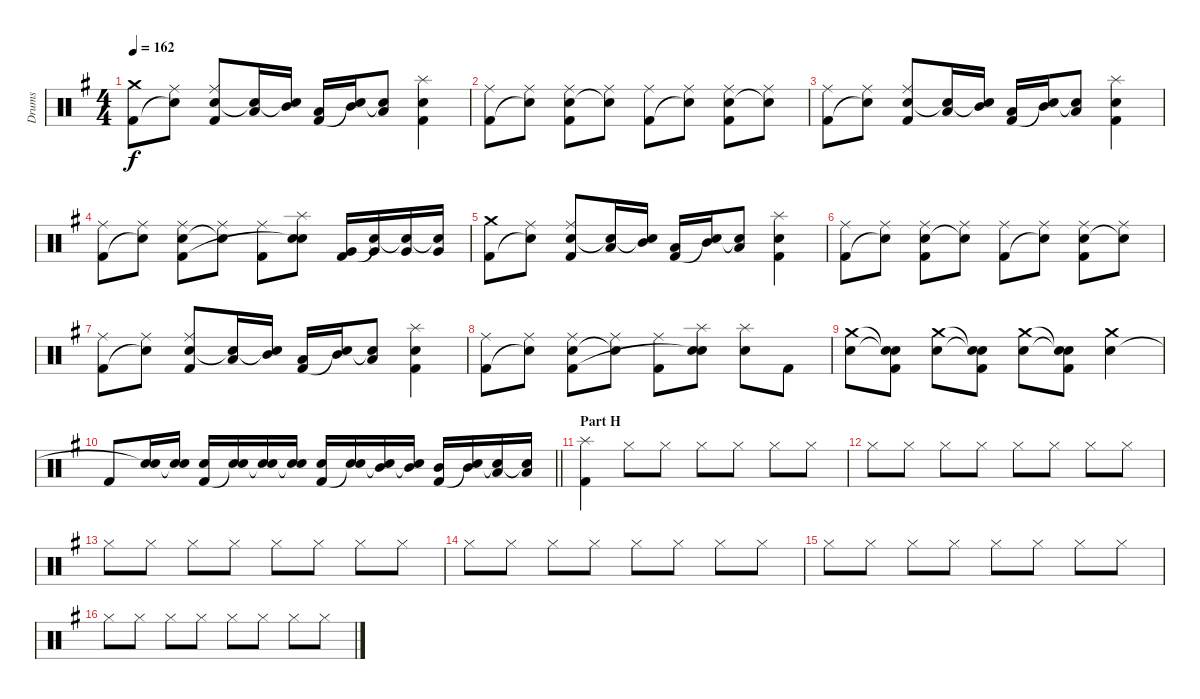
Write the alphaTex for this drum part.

\track ("Drums" "Drums") {instrument percussion}
\staff {score}
\articulation defaults
\ts (4 4)
\tempo 162
\clef neutral
\ks g
("Crash medium (hit)" "Kick (hit) 2").8{dy f} ("Ride (middle)" "Snare (hit)"{t}).8 ("Ride (middle)" "Electric Snare (hit)" "Kick (hit) 2").8 ("Low Tom (hit)" "Snare (hit)"{t}).16 ("Mid Tom (hit)" "Snare (hit)"{t}).16 ("Low Tom (hit)" "Kick (hit) 2").16 ("Mid Tom (hit)" "Snare (hit)"{t}).16 ("Low Tom (hit)" "Snare (hit)"{t}).8 ("Splash (hit)" "Electric Snare (hit)" "Kick (hit) 2").4 |
("Ride (middle)" "Kick (hit) 2").8 ("Ride (middle)" "Snare (hit)"{t}).8 ("Ride (middle)" "Electric Snare (hit)" "Kick (hit) 2").8 ("Ride (middle)" "Snare (hit)"{t}).8 ("Ride (middle)" "Kick (hit) 2").8 ("Ride (middle)" "Snare (hit)"{t}).8 ("Ride (middle)" "Electric Snare (hit)" "Kick (hit) 2").8 ("Ride (middle)" "Snare (hit)"{t}).8 |
("Ride (middle)" "Kick (hit) 2").8 ("Ride (middle)" "Snare (hit)"{t}).8 ("Ride (middle)" "Electric Snare (hit)" "Kick (hit) 2").8 ("Low Tom (hit)" "Snare (hit)"{t}).16 ("Mid Tom (hit)" "Snare (hit)"{t}).16 ("Low Tom (hit)" "Kick (hit) 2").16 ("Mid Tom (hit)" "Snare (hit)"{t}).16 ("Low Tom (hit)" "Snare (hit)"{t}).8 ("Splash (hit)" "Electric Snare (hit)" "Kick (hit) 2").4 |
("Ride (middle)" "Kick (hit) 2").8 ("Ride (middle)" "Snare (hit)"{t}).8 ("Ride (middle)" "Electric Snare (hit)" "Kick (hit) 2").8 ("Ride (middle)" "Snare (hit)"{t}).8 ("Ride (middle)" "Kick (hit) 2").8 ("Splash (hit)" "Electric Snare (hit)" "Snare (hit)"{t}).8 ("Very Low Tom (hit)" "Kick (hit) 2").16 ("Very Low Tom (hit)" "Snare (hit)"{t}).16 ("Very Low Tom (hit)" "Snare (hit)"{t}).16 ("Very Low Tom (hit)" "Snare (hit)"{t}).16 |
("Crash medium (hit)" "Kick (hit) 2").8 ("Ride (middle)" "Snare (hit)"{t}).8 ("Ride (middle)" "Electric Snare (hit)" "Kick (hit) 2").8 ("Low Tom (hit)" "Snare (hit)"{t}).16 ("Mid Tom (hit)" "Snare (hit)"{t}).16 ("Low Tom (hit)" "Kick (hit) 2").16 ("Mid Tom (hit)" "Snare (hit)"{t}).16 ("Low Tom (hit)" "Snare (hit)"{t}).8 ("Splash (hit)" "Electric Snare (hit)" "Kick (hit) 2").4 |
("Ride (middle)" "Kick (hit) 2").8 ("Ride (middle)" "Snare (hit)"{t}).8 ("Ride (middle)" "Electric Snare (hit)" "Kick (hit) 2").8 ("Ride (middle)" "Snare (hit)"{t}).8 ("Ride (middle)" "Kick (hit) 2").8 ("Ride (middle)" "Snare (hit)"{t}).8 ("Ride (middle)" "Electric Snare (hit)" "Kick (hit) 2").8 ("Ride (middle)" "Snare (hit)"{t}).8 |
("Ride (middle)" "Kick (hit) 2").8 ("Ride (middle)" "Snare (hit)"{t}).8 ("Ride (middle)" "Electric Snare (hit)" "Kick (hit) 2").8 ("Low Tom (hit)" "Snare (hit)"{t}).16 ("Mid Tom (hit)" "Snare (hit)"{t}).16 ("Low Tom (hit)" "Kick (hit) 2").16 ("Mid Tom (hit)" "Snare (hit)"{t}).16 ("Low Tom (hit)" "Snare (hit)"{t}).8 ("Splash (hit)" "Electric Snare (hit)" "Kick (hit) 2").4 |
("Ride (middle)" "Kick (hit) 2").8 ("Ride (middle)" "Snare (hit)"{t}).8 ("Ride (middle)" "Electric Snare (hit)" "Kick (hit) 2").8 ("Ride (middle)" "Snare (hit)"{t}).8 ("Ride (middle)" "Kick (hit) 2").8 ("Splash (hit)" "Electric Snare (hit)" "Snare (hit)"{t}).8 ("Splash (hit)" "Electric Snare (hit)").8 "Kick (hit) 2".8 |
("Crash medium (hit)" "Electric Snare (hit)").8 ("Snare (hit)"{t} "Snare (hit)"{t} "Kick (hit) 2").8 ("Crash medium (hit)" "Electric Snare (hit)").8 ("Snare (hit)"{t} "Snare (hit)"{t} "Kick (hit) 2").8 ("Crash medium (hit)" "Electric Snare (hit)").8 ("Snare (hit)"{t} "Snare (hit)"{t} "Kick (hit) 2").8 ("Crash medium (hit)" "Electric Snare (hit)").4 |
\barLineRight lightlight "Kick (hit) 2".8
("Electric Snare (hit)" "Snare (hit)"{t}).16 ("Electric Snare (hit)" "Snare (hit)"{t}).16 ("Electric Snare (hit)" "Kick (hit) 2").16 ("Electric Snare (hit)" "Snare (hit)"{t}).16 ("Electric Snare (hit)" "Snare (hit)"{t}).16 ("Electric Snare (hit)" "Snare (hit)"{t}).16 ("Electric Snare (hit)" "Kick (hit) 2").16 ("Electric Snare (hit)" "Snare (hit)"{t}).16 ("Mid Tom (hit)" "Snare (hit)"{t}).16 ("Mid Tom (hit)" "Snare (hit)"{t}).16 ("Mid Tom (hit)" "Kick (hit) 2").16 ("Mid Tom (hit)" "Snare (hit)"{t}).16 ("Low Tom (hit)" "Snare (hit)"{t}).16 ("Low Tom (hit)" "Snare (hit)"{t}).16 |
\section ("" "Part H")
("Splash (hit)" "Kick (hit) 2").4 "Hi-Hat (closed)".8 "Hi-Hat (closed)".8 "Hi-Hat (closed)".8 "Hi-Hat (closed)".8 "Hi-Hat (closed)".8 "Hi-Hat (closed)".8 |
"Hi-Hat (closed)".8 "Hi-Hat (closed)".8 "Hi-Hat (closed)".8 "Hi-Hat (closed)".8 "Hi-Hat (closed)".8 "Hi-Hat (closed)".8 "Hi-Hat (closed)".8 "Hi-Hat (closed)".8 |
"Hi-Hat (closed)".8 "Hi-Hat (closed)".8 "Hi-Hat (closed)".8 "Hi-Hat (closed)".8 "Hi-Hat (closed)".8 "Hi-Hat (closed)".8 "Hi-Hat (closed)".8 "Hi-Hat (closed)".8 |
"Hi-Hat (closed)".8 "Hi-Hat (closed)".8 "Hi-Hat (closed)".8 "Hi-Hat (closed)".8 "Hi-Hat (closed)".8 "Hi-Hat (closed)".8 "Hi-Hat (closed)".8 "Hi-Hat (closed)".8 |
"Hi-Hat (closed)".8 "Hi-Hat (closed)".8 "Hi-Hat (closed)".8 "Hi-Hat (closed)".8 "Hi-Hat (closed)".8 "Hi-Hat (closed)".8 "Hi-Hat (closed)".8 "Hi-Hat (closed)".8 |
"Hi-Hat (closed)".8 "Hi-Hat (closed)".8 "Hi-Hat (closed)".8 "Hi-Hat (closed)".8 "Hi-Hat (closed)".8 "Hi-Hat (closed)".8 "Hi-Hat (closed)".8 "Hi-Hat (closed)".8
